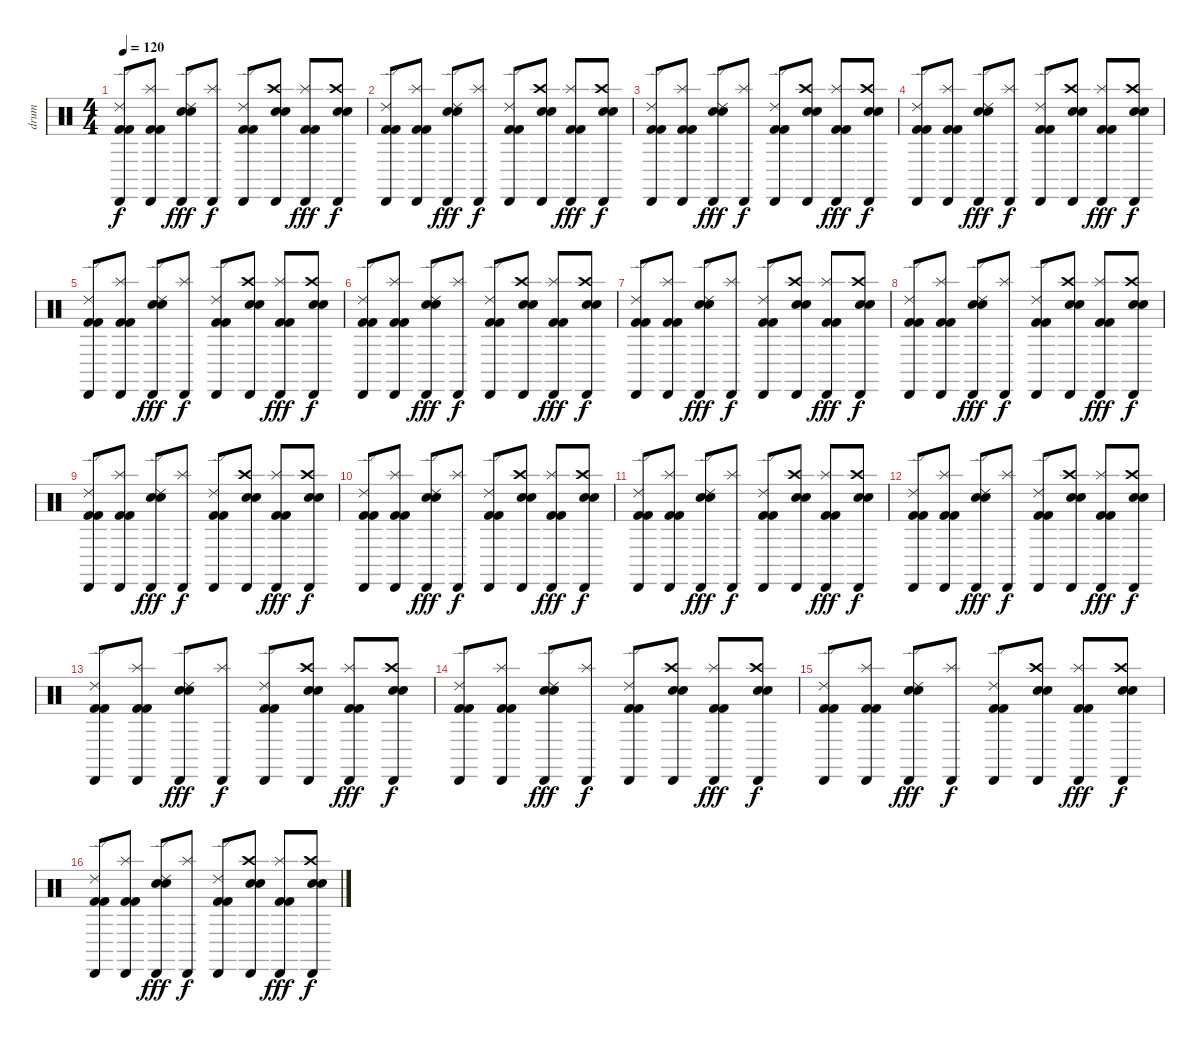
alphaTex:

\track ("drum" "drum") {instrument percussion}
\staff {score}
\articulation defaults
\ts (4 4)
\tempo 120
\clef neutral
\ks c
("Cabasa (hit)" "Ride (edge) 2" "Kick (hit) 2" "Kick (hit) 2").8{dy f} ("Cabasa (hit)" "Splash (hit)" "Kick (hit) 2" "Kick (hit) 2").8 ("Cabasa (hit)" "Ride (edge) 2" "Snare (hit) 2" "Snare (hit) 2").8{dy fff} ("Cabasa (hit)" "Splash (hit)").8{dy f} ("Cabasa (hit)" "Ride (edge) 2" "Kick (hit) 2" "Kick (hit) 2").8 ("Cabasa (hit)" "Crash high (hit)" "Snare (hit) 2" "Snare (hit) 2").8 ("Cabasa (hit)" "Splash (hit)" "Kick (hit) 2" "Kick (hit) 2").8{dy fff} ("Cabasa (hit)" "Crash high (hit)" "Snare (hit) 2" "Snare (hit) 2").8{dy f} |
("Cabasa (hit)" "Ride (edge) 2" "Kick (hit) 2" "Kick (hit) 2").8 ("Cabasa (hit)" "Splash (hit)" "Kick (hit) 2" "Kick (hit) 2").8 ("Cabasa (hit)" "Ride (edge) 2" "Snare (hit) 2" "Snare (hit) 2").8{dy fff} ("Cabasa (hit)" "Splash (hit)").8{dy f} ("Cabasa (hit)" "Ride (edge) 2" "Kick (hit) 2" "Kick (hit) 2").8 ("Cabasa (hit)" "Crash high (hit)" "Snare (hit) 2" "Snare (hit) 2").8 ("Cabasa (hit)" "Splash (hit)" "Kick (hit) 2" "Kick (hit) 2").8{dy fff} ("Cabasa (hit)" "Crash high (hit)" "Snare (hit) 2" "Snare (hit) 2").8{dy f} |
("Cabasa (hit)" "Ride (edge) 2" "Kick (hit) 2" "Kick (hit) 2").8 ("Cabasa (hit)" "Splash (hit)" "Kick (hit) 2" "Kick (hit) 2").8 ("Cabasa (hit)" "Ride (edge) 2" "Snare (hit) 2" "Snare (hit) 2").8{dy fff} ("Cabasa (hit)" "Splash (hit)").8{dy f} ("Cabasa (hit)" "Ride (edge) 2" "Kick (hit) 2" "Kick (hit) 2").8 ("Cabasa (hit)" "Crash high (hit)" "Snare (hit) 2" "Snare (hit) 2").8 ("Cabasa (hit)" "Splash (hit)" "Kick (hit) 2" "Kick (hit) 2").8{dy fff} ("Cabasa (hit)" "Crash high (hit)" "Snare (hit) 2" "Snare (hit) 2").8{dy f} |
("Cabasa (hit)" "Ride (edge) 2" "Kick (hit) 2" "Kick (hit) 2").8 ("Cabasa (hit)" "Splash (hit)" "Kick (hit) 2" "Kick (hit) 2").8 ("Cabasa (hit)" "Ride (edge) 2" "Snare (hit) 2" "Snare (hit) 2").8{dy fff} ("Cabasa (hit)" "Splash (hit)").8{dy f} ("Cabasa (hit)" "Ride (edge) 2" "Kick (hit) 2" "Kick (hit) 2").8 ("Cabasa (hit)" "Crash high (hit)" "Snare (hit) 2" "Snare (hit) 2").8 ("Cabasa (hit)" "Splash (hit)" "Kick (hit) 2" "Kick (hit) 2").8{dy fff} ("Cabasa (hit)" "Crash high (hit)" "Snare (hit) 2" "Snare (hit) 2").8{dy f} |
("Cabasa (hit)" "Ride (edge) 2" "Kick (hit) 2" "Kick (hit) 2").8 ("Cabasa (hit)" "Splash (hit)" "Kick (hit) 2" "Kick (hit) 2").8 ("Cabasa (hit)" "Ride (edge) 2" "Snare (hit) 2" "Snare (hit) 2").8{dy fff} ("Cabasa (hit)" "Splash (hit)").8{dy f} ("Cabasa (hit)" "Ride (edge) 2" "Kick (hit) 2" "Kick (hit) 2").8 ("Cabasa (hit)" "Crash high (hit)" "Snare (hit) 2" "Snare (hit) 2").8 ("Cabasa (hit)" "Splash (hit)" "Kick (hit) 2" "Kick (hit) 2").8{dy fff} ("Cabasa (hit)" "Crash high (hit)" "Snare (hit) 2" "Snare (hit) 2").8{dy f} |
("Cabasa (hit)" "Ride (edge) 2" "Kick (hit) 2" "Kick (hit) 2").8 ("Cabasa (hit)" "Splash (hit)" "Kick (hit) 2" "Kick (hit) 2").8 ("Cabasa (hit)" "Ride (edge) 2" "Snare (hit) 2" "Snare (hit) 2").8{dy fff} ("Cabasa (hit)" "Splash (hit)").8{dy f} ("Cabasa (hit)" "Ride (edge) 2" "Kick (hit) 2" "Kick (hit) 2").8 ("Cabasa (hit)" "Crash high (hit)" "Snare (hit) 2" "Snare (hit) 2").8 ("Cabasa (hit)" "Splash (hit)" "Kick (hit) 2" "Kick (hit) 2").8{dy fff} ("Cabasa (hit)" "Crash high (hit)" "Snare (hit) 2" "Snare (hit) 2").8{dy f} |
("Cabasa (hit)" "Ride (edge) 2" "Kick (hit) 2" "Kick (hit) 2").8 ("Cabasa (hit)" "Splash (hit)" "Kick (hit) 2" "Kick (hit) 2").8 ("Cabasa (hit)" "Ride (edge) 2" "Snare (hit) 2" "Snare (hit) 2").8{dy fff} ("Cabasa (hit)" "Splash (hit)").8{dy f} ("Cabasa (hit)" "Ride (edge) 2" "Kick (hit) 2" "Kick (hit) 2").8 ("Cabasa (hit)" "Crash high (hit)" "Snare (hit) 2" "Snare (hit) 2").8 ("Cabasa (hit)" "Splash (hit)" "Kick (hit) 2" "Kick (hit) 2").8{dy fff} ("Cabasa (hit)" "Crash high (hit)" "Snare (hit) 2" "Snare (hit) 2").8{dy f} |
("Cabasa (hit)" "Ride (edge) 2" "Kick (hit) 2" "Kick (hit) 2").8 ("Cabasa (hit)" "Splash (hit)" "Kick (hit) 2" "Kick (hit) 2").8 ("Cabasa (hit)" "Ride (edge) 2" "Snare (hit) 2" "Snare (hit) 2").8{dy fff} ("Cabasa (hit)" "Splash (hit)").8{dy f} ("Cabasa (hit)" "Ride (edge) 2" "Kick (hit) 2" "Kick (hit) 2").8 ("Cabasa (hit)" "Crash high (hit)" "Snare (hit) 2" "Snare (hit) 2").8 ("Cabasa (hit)" "Splash (hit)" "Kick (hit) 2" "Kick (hit) 2").8{dy fff} ("Cabasa (hit)" "Crash high (hit)" "Snare (hit) 2" "Snare (hit) 2").8{dy f} |
("Cabasa (hit)" "Ride (edge) 2" "Kick (hit) 2" "Kick (hit) 2").8 ("Cabasa (hit)" "Splash (hit)" "Kick (hit) 2" "Kick (hit) 2").8 ("Cabasa (hit)" "Ride (edge) 2" "Snare (hit) 2" "Snare (hit) 2").8{dy fff} ("Cabasa (hit)" "Splash (hit)").8{dy f} ("Cabasa (hit)" "Ride (edge) 2" "Kick (hit) 2" "Kick (hit) 2").8 ("Cabasa (hit)" "Crash high (hit)" "Snare (hit) 2" "Snare (hit) 2").8 ("Cabasa (hit)" "Splash (hit)" "Kick (hit) 2" "Kick (hit) 2").8{dy fff} ("Cabasa (hit)" "Crash high (hit)" "Snare (hit) 2" "Snare (hit) 2").8{dy f} |
("Cabasa (hit)" "Ride (edge) 2" "Kick (hit) 2" "Kick (hit) 2").8 ("Cabasa (hit)" "Splash (hit)" "Kick (hit) 2" "Kick (hit) 2").8 ("Cabasa (hit)" "Ride (edge) 2" "Snare (hit) 2" "Snare (hit) 2").8{dy fff} ("Cabasa (hit)" "Splash (hit)").8{dy f} ("Cabasa (hit)" "Ride (edge) 2" "Kick (hit) 2" "Kick (hit) 2").8 ("Cabasa (hit)" "Crash high (hit)" "Snare (hit) 2" "Snare (hit) 2").8 ("Cabasa (hit)" "Splash (hit)" "Kick (hit) 2" "Kick (hit) 2").8{dy fff} ("Cabasa (hit)" "Crash high (hit)" "Snare (hit) 2" "Snare (hit) 2").8{dy f} |
("Cabasa (hit)" "Ride (edge) 2" "Kick (hit) 2" "Kick (hit) 2").8 ("Cabasa (hit)" "Splash (hit)" "Kick (hit) 2" "Kick (hit) 2").8 ("Cabasa (hit)" "Ride (edge) 2" "Snare (hit) 2" "Snare (hit) 2").8{dy fff} ("Cabasa (hit)" "Splash (hit)").8{dy f} ("Cabasa (hit)" "Ride (edge) 2" "Kick (hit) 2" "Kick (hit) 2").8 ("Cabasa (hit)" "Crash high (hit)" "Snare (hit) 2" "Snare (hit) 2").8 ("Cabasa (hit)" "Splash (hit)" "Kick (hit) 2" "Kick (hit) 2").8{dy fff} ("Cabasa (hit)" "Crash high (hit)" "Snare (hit) 2" "Snare (hit) 2").8{dy f} |
("Cabasa (hit)" "Ride (edge) 2" "Kick (hit) 2" "Kick (hit) 2").8 ("Cabasa (hit)" "Splash (hit)" "Kick (hit) 2" "Kick (hit) 2").8 ("Cabasa (hit)" "Ride (edge) 2" "Snare (hit) 2" "Snare (hit) 2").8{dy fff} ("Cabasa (hit)" "Splash (hit)").8{dy f} ("Cabasa (hit)" "Ride (edge) 2" "Kick (hit) 2" "Kick (hit) 2").8 ("Cabasa (hit)" "Crash high (hit)" "Snare (hit) 2" "Snare (hit) 2").8 ("Cabasa (hit)" "Splash (hit)" "Kick (hit) 2" "Kick (hit) 2").8{dy fff} ("Cabasa (hit)" "Crash high (hit)" "Snare (hit) 2" "Snare (hit) 2").8{dy f} |
("Cabasa (hit)" "Ride (edge) 2" "Kick (hit) 2" "Kick (hit) 2").8 ("Cabasa (hit)" "Splash (hit)" "Kick (hit) 2" "Kick (hit) 2").8 ("Cabasa (hit)" "Ride (edge) 2" "Snare (hit) 2" "Snare (hit) 2").8{dy fff} ("Cabasa (hit)" "Splash (hit)").8{dy f} ("Cabasa (hit)" "Ride (edge) 2" "Kick (hit) 2" "Kick (hit) 2").8 ("Cabasa (hit)" "Crash high (hit)" "Snare (hit) 2" "Snare (hit) 2").8 ("Cabasa (hit)" "Splash (hit)" "Kick (hit) 2" "Kick (hit) 2").8{dy fff} ("Cabasa (hit)" "Crash high (hit)" "Snare (hit) 2" "Snare (hit) 2").8{dy f} |
("Cabasa (hit)" "Ride (edge) 2" "Kick (hit) 2" "Kick (hit) 2").8 ("Cabasa (hit)" "Splash (hit)" "Kick (hit) 2" "Kick (hit) 2").8 ("Cabasa (hit)" "Ride (edge) 2" "Snare (hit) 2" "Snare (hit) 2").8{dy fff} ("Cabasa (hit)" "Splash (hit)").8{dy f} ("Cabasa (hit)" "Ride (edge) 2" "Kick (hit) 2" "Kick (hit) 2").8 ("Cabasa (hit)" "Crash high (hit)" "Snare (hit) 2" "Snare (hit) 2").8 ("Cabasa (hit)" "Splash (hit)" "Kick (hit) 2" "Kick (hit) 2").8{dy fff} ("Cabasa (hit)" "Crash high (hit)" "Snare (hit) 2" "Snare (hit) 2").8{dy f} |
("Cabasa (hit)" "Ride (edge) 2" "Kick (hit) 2" "Kick (hit) 2").8 ("Cabasa (hit)" "Splash (hit)" "Kick (hit) 2" "Kick (hit) 2").8 ("Cabasa (hit)" "Ride (edge) 2" "Snare (hit) 2" "Snare (hit) 2").8{dy fff} ("Cabasa (hit)" "Splash (hit)").8{dy f} ("Cabasa (hit)" "Ride (edge) 2" "Kick (hit) 2" "Kick (hit) 2").8 ("Cabasa (hit)" "Crash high (hit)" "Snare (hit) 2" "Snare (hit) 2").8 ("Cabasa (hit)" "Splash (hit)" "Kick (hit) 2" "Kick (hit) 2").8{dy fff} ("Cabasa (hit)" "Crash high (hit)" "Snare (hit) 2" "Snare (hit) 2").8{dy f} |
("Cabasa (hit)" "Ride (edge) 2" "Kick (hit) 2" "Kick (hit) 2").8 ("Cabasa (hit)" "Splash (hit)" "Kick (hit) 2" "Kick (hit) 2").8 ("Cabasa (hit)" "Ride (edge) 2" "Snare (hit) 2" "Snare (hit) 2").8{dy fff} ("Cabasa (hit)" "Splash (hit)").8{dy f} ("Cabasa (hit)" "Ride (edge) 2" "Kick (hit) 2" "Kick (hit) 2").8 ("Cabasa (hit)" "Crash high (hit)" "Snare (hit) 2" "Snare (hit) 2").8 ("Cabasa (hit)" "Splash (hit)" "Kick (hit) 2" "Kick (hit) 2").8{dy fff} ("Cabasa (hit)" "Crash high (hit)" "Snare (hit) 2" "Snare (hit) 2").8{dy f}
